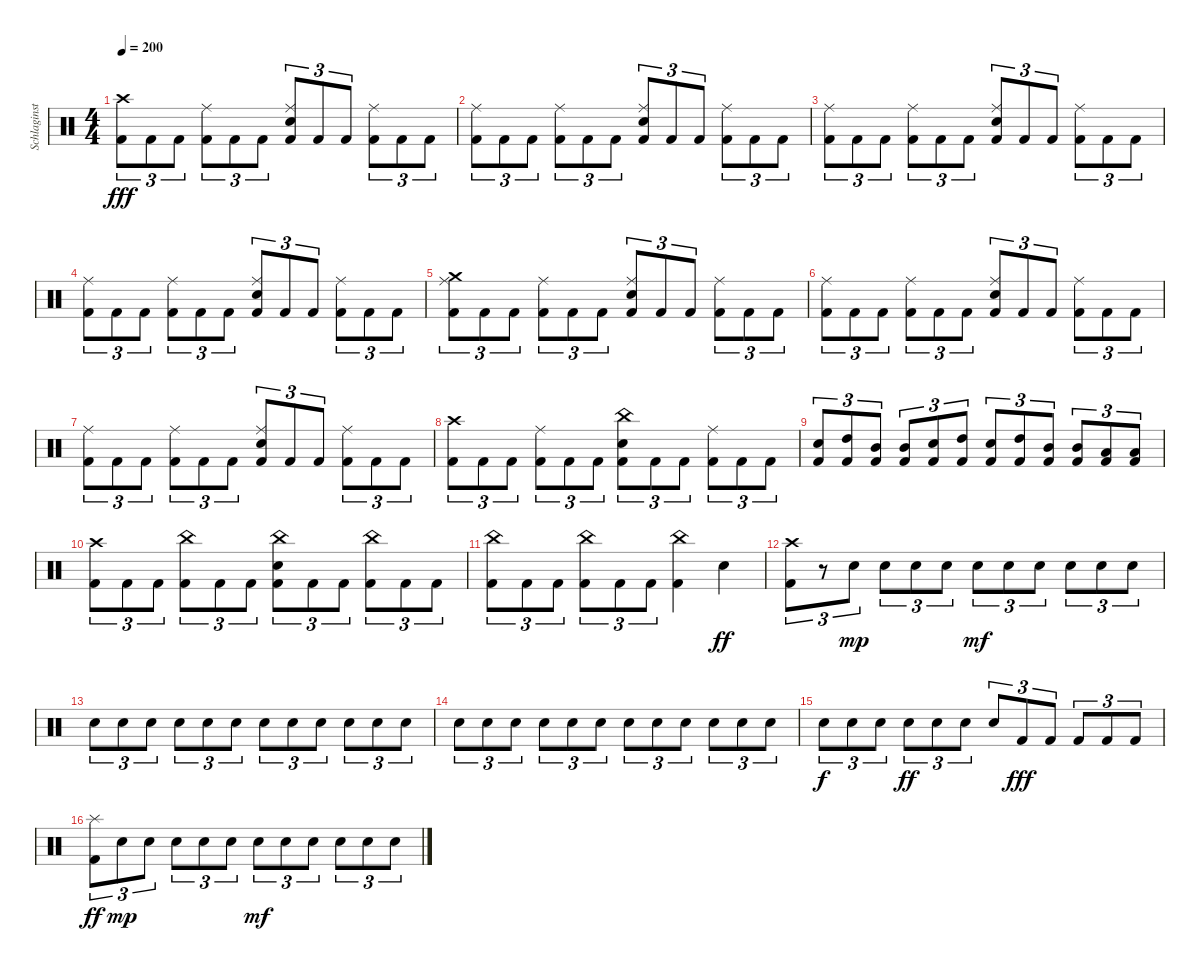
\track ("Schlaginstrumente - Auswahl" "Schlaginst") {instrument percussion}
\staff {score}
\articulation defaults
\ts (4 4)
\tempo 200
\clef neutral
\ks c
("Crash high (hit)" "Kick (hit) 2").8{tu (3 2) dy fff} "Kick (hit) 2".8{tu (3 2)} "Kick (hit) 2".8{tu (3 2)} ("Ride (middle)" "Kick (hit) 2").8{tu (3 2)} "Kick (hit) 2".8{tu (3 2)} "Kick (hit) 2".8{tu (3 2)} ("Ride (middle)" "Snare (hit) 2" "Kick (hit) 2").8{tu (3 2)} "Kick (hit) 2".8{tu (3 2)} "Kick (hit) 2".8{tu (3 2)} ("Ride (middle)" "Kick (hit) 2").8{tu (3 2)} "Kick (hit) 2".8{tu (3 2)} "Kick (hit) 2".8{tu (3 2)} |
("Ride (middle)" "Kick (hit) 2").8{tu (3 2)} "Kick (hit) 2".8{tu (3 2)} "Kick (hit) 2".8{tu (3 2)} ("Ride (middle)" "Kick (hit) 2").8{tu (3 2)} "Kick (hit) 2".8{tu (3 2)} "Kick (hit) 2".8{tu (3 2)} ("Ride (middle)" "Snare (hit) 2" "Kick (hit) 2").8{tu (3 2)} "Kick (hit) 2".8{tu (3 2)} "Kick (hit) 2".8{tu (3 2)} ("Ride (middle)" "Kick (hit) 2").8{tu (3 2)} "Kick (hit) 2".8{tu (3 2)} "Kick (hit) 2".8{tu (3 2)} |
("Ride (middle)" "Kick (hit) 2").8{tu (3 2)} "Kick (hit) 2".8{tu (3 2)} "Kick (hit) 2".8{tu (3 2)} ("Ride (middle)" "Kick (hit) 2").8{tu (3 2)} "Kick (hit) 2".8{tu (3 2)} "Kick (hit) 2".8{tu (3 2)} ("Ride (middle)" "Snare (hit) 2" "Kick (hit) 2").8{tu (3 2)} "Kick (hit) 2".8{tu (3 2)} "Kick (hit) 2".8{tu (3 2)} ("Ride (middle)" "Kick (hit) 2").8{tu (3 2)} "Kick (hit) 2".8{tu (3 2)} "Kick (hit) 2".8{tu (3 2)} |
("Ride (middle)" "Kick (hit) 2").8{tu (3 2)} "Kick (hit) 2".8{tu (3 2)} "Kick (hit) 2".8{tu (3 2)} ("Ride (middle)" "Kick (hit) 2").8{tu (3 2)} "Kick (hit) 2".8{tu (3 2)} "Kick (hit) 2".8{tu (3 2)} ("Ride (middle)" "Snare (hit) 2" "Kick (hit) 2").8{tu (3 2)} "Kick (hit) 2".8{tu (3 2)} "Kick (hit) 2".8{tu (3 2)} ("Ride (middle)" "Kick (hit) 2").8{tu (3 2)} "Kick (hit) 2".8{tu (3 2)} "Kick (hit) 2".8{tu (3 2)} |
("Crash medium (hit)" "Ride (middle)" "Kick (hit) 2").8{tu (3 2)} "Kick (hit) 2".8{tu (3 2)} "Kick (hit) 2".8{tu (3 2)} ("Ride (middle)" "Kick (hit) 2").8{tu (3 2)} "Kick (hit) 2".8{tu (3 2)} "Kick (hit) 2".8{tu (3 2)} ("Ride (middle)" "Snare (hit) 2" "Kick (hit) 2").8{tu (3 2)} "Kick (hit) 2".8{tu (3 2)} "Kick (hit) 2".8{tu (3 2)} ("Ride (middle)" "Kick (hit) 2").8{tu (3 2)} "Kick (hit) 2".8{tu (3 2)} "Kick (hit) 2".8{tu (3 2)} |
("Ride (middle)" "Kick (hit) 2").8{tu (3 2)} "Kick (hit) 2".8{tu (3 2)} "Kick (hit) 2".8{tu (3 2)} ("Ride (middle)" "Kick (hit) 2").8{tu (3 2)} "Kick (hit) 2".8{tu (3 2)} "Kick (hit) 2".8{tu (3 2)} ("Ride (middle)" "Snare (hit) 2" "Kick (hit) 2").8{tu (3 2)} "Kick (hit) 2".8{tu (3 2)} "Kick (hit) 2".8{tu (3 2)} ("Ride (middle)" "Kick (hit) 2").8{tu (3 2)} "Kick (hit) 2".8{tu (3 2)} "Kick (hit) 2".8{tu (3 2)} |
("Ride (middle)" "Kick (hit) 2").8{tu (3 2)} "Kick (hit) 2".8{tu (3 2)} "Kick (hit) 2".8{tu (3 2)} ("Ride (middle)" "Kick (hit) 2").8{tu (3 2)} "Kick (hit) 2".8{tu (3 2)} "Kick (hit) 2".8{tu (3 2)} ("Ride (middle)" "Snare (hit) 2" "Kick (hit) 2").8{tu (3 2)} "Kick (hit) 2".8{tu (3 2)} "Kick (hit) 2".8{tu (3 2)} ("Ride (middle)" "Kick (hit) 2").8{tu (3 2)} "Kick (hit) 2".8{tu (3 2)} "Kick (hit) 2".8{tu (3 2)} |
("Crash high (hit)" "Kick (hit) 2").8{tu (3 2)} "Kick (hit) 2".8{tu (3 2)} "Kick (hit) 2".8{tu (3 2)} ("Ride (middle)" "Kick (hit) 2").8{tu (3 2)} "Kick (hit) 2".8{tu (3 2)} "Kick (hit) 2".8{tu (3 2)} ("China (hit)" "Snare (hit) 2" "Kick (hit) 2").8{tu (3 2)} "Kick (hit) 2".8{tu (3 2)} "Kick (hit) 2".8{tu (3 2)} ("Ride (middle)" "Kick (hit) 2").8{tu (3 2)} "Kick (hit) 2".8{tu (3 2)} "Kick (hit) 2".8{tu (3 2)} |
("Snare (hit) 2" "Kick (hit) 2").8{tu (3 2)} ("High Tom (hit)" "Kick (hit) 2").8{tu (3 2)} ("Mid Tom (hit)" "Kick (hit) 2").8{tu (3 2)} ("Mid Tom (hit)" "Kick (hit) 2").8{tu (3 2)} ("Snare (hit) 2" "Kick (hit) 2").8{tu (3 2)} ("High Tom (hit)" "Kick (hit) 2").8{tu (3 2)} ("Snare (hit) 2" "Kick (hit) 2").8{tu (3 2)} ("High Tom (hit)" "Kick (hit) 2").8{tu (3 2)} ("Mid Tom (hit)" "Kick (hit) 2").8{tu (3 2)} ("Mid Tom (hit)" "Kick (hit) 2").8{tu (3 2)} ("Low Tom (hit)" "Kick (hit) 2").8{tu (3 2)} ("Low Tom (hit)" "Kick (hit) 2").8{tu (3 2)} |
("Crash high (hit)" "Kick (hit) 2").8{tu (3 2)} "Kick (hit) 2".8{tu (3 2)} "Kick (hit) 2".8{tu (3 2)} ("China (hit)" "Kick (hit) 2").8{tu (3 2)} "Kick (hit) 2".8{tu (3 2)} "Kick (hit) 2".8{tu (3 2)} ("China (hit)" "Snare (hit) 2" "Kick (hit) 2").8{tu (3 2)} "Kick (hit) 2".8{tu (3 2)} "Kick (hit) 2".8{tu (3 2)} ("China (hit)" "Kick (hit) 2").8{tu (3 2)} "Kick (hit) 2".8{tu (3 2)} "Kick (hit) 2".8{tu (3 2)} |
("China (hit)" "Kick (hit) 2").8{tu (3 2)} "Kick (hit) 2".8{tu (3 2)} "Kick (hit) 2".8{tu (3 2)} ("China (hit)" "Kick (hit) 2").8{tu (3 2)} "Kick (hit) 2".8{tu (3 2)} "Kick (hit) 2".8{tu (3 2)} ("China (hit)" "Kick (hit) 2").4 "Snare (hit) 2".4{dy ff} |
("Crash high (hit)" "Kick (hit) 2").8{tu (3 2)} r.8{tu (3 2)} "Snare (hit) 2".8{tu (3 2) dy mp} "Snare (hit) 2".8{tu (3 2)} "Snare (hit) 2".8{tu (3 2)} "Snare (hit) 2".8{tu (3 2)} "Snare (hit) 2".8{tu (3 2) dy mf} "Snare (hit) 2".8{tu (3 2)} "Snare (hit) 2".8{tu (3 2)} "Snare (hit) 2".8{tu (3 2)} "Snare (hit) 2".8{tu (3 2)} "Snare (hit) 2".8{tu (3 2)} |
"Snare (hit) 2".8{tu (3 2)} "Snare (hit) 2".8{tu (3 2)} "Snare (hit) 2".8{tu (3 2)} "Snare (hit) 2".8{tu (3 2)} "Snare (hit) 2".8{tu (3 2)} "Snare (hit) 2".8{tu (3 2)} "Snare (hit) 2".8{tu (3 2)} "Snare (hit) 2".8{tu (3 2)} "Snare (hit) 2".8{tu (3 2)} "Snare (hit) 2".8{tu (3 2)} "Snare (hit) 2".8{tu (3 2)} "Snare (hit) 2".8{tu (3 2)} |
"Snare (hit) 2".8{tu (3 2)} "Snare (hit) 2".8{tu (3 2)} "Snare (hit) 2".8{tu (3 2)} "Snare (hit) 2".8{tu (3 2)} "Snare (hit) 2".8{tu (3 2)} "Snare (hit) 2".8{tu (3 2)} "Snare (hit) 2".8{tu (3 2)} "Snare (hit) 2".8{tu (3 2)} "Snare (hit) 2".8{tu (3 2)} "Snare (hit) 2".8{tu (3 2)} "Snare (hit) 2".8{tu (3 2)} "Snare (hit) 2".8{tu (3 2)} |
"Snare (hit) 2".8{tu (3 2) dy f} "Snare (hit) 2".8{tu (3 2)} "Snare (hit) 2".8{tu (3 2)} "Snare (hit) 2".8{tu (3 2) dy ff} "Snare (hit) 2".8{tu (3 2)} "Snare (hit) 2".8{tu (3 2)} "Snare (hit) 2".8{tu (3 2)} "Kick (hit) 2".8{tu (3 2) dy fff} "Kick (hit) 2".8{tu (3 2)} "Kick (hit) 2".8{tu (3 2)} "Kick (hit) 2".8{tu (3 2)} "Kick (hit) 2".8{tu (3 2)} |
("Splash (hit)" "Kick (hit) 2").8{tu (3 2) dy ff} "Snare (hit) 2".8{tu (3 2) dy mp} "Snare (hit) 2".8{tu (3 2)} "Snare (hit) 2".8{tu (3 2)} "Snare (hit) 2".8{tu (3 2)} "Snare (hit) 2".8{tu (3 2)} "Snare (hit) 2".8{tu (3 2) dy mf} "Snare (hit) 2".8{tu (3 2)} "Snare (hit) 2".8{tu (3 2)} "Snare (hit) 2".8{tu (3 2)} "Snare (hit) 2".8{tu (3 2)} "Snare (hit) 2".8{tu (3 2)}
